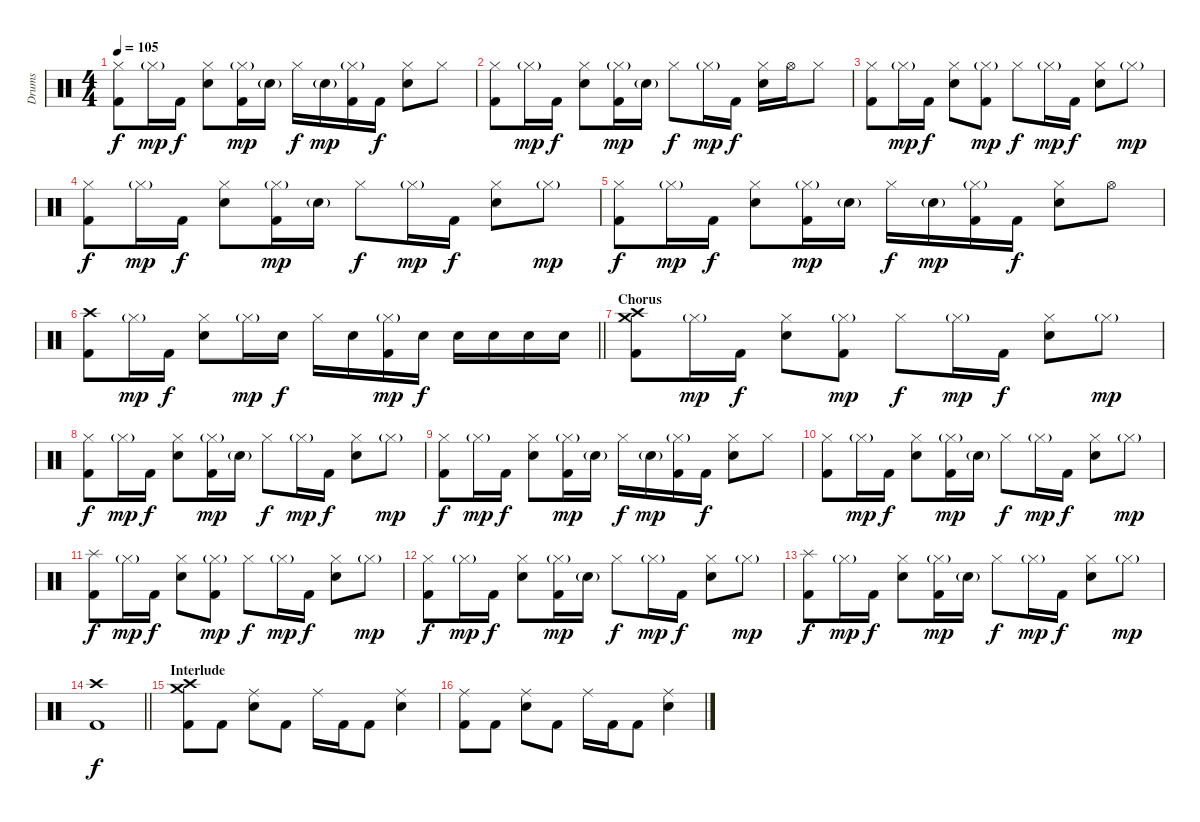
\track ("Drums" "Drums") {instrument percussion}
\staff {score}
\articulation defaults
\ts (4 4)
\tempo 105
\clef neutral
\ks c
("Hi-Hat (closed)" "Kick (hit) 2").8{dy f} "Hi-Hat (closed)"{g}.16{dy mp} "Kick (hit) 2".16{dy f} ("Hi-Hat (closed)" "Electric Snare (hit)").8 ("Hi-Hat (closed)"{g} "Kick (hit) 2").16{dy mp} "Electric Snare (hit)"{g}.16 "Hi-Hat (closed)".16{dy f} "Electric Snare (hit)"{g}.16{dy mp} ("Hi-Hat (closed)"{g} "Kick (hit) 2").16 "Kick (hit) 2".16{dy f} ("Hi-Hat (closed)" "Electric Snare (hit)").8 "Hi-Hat (closed)".8 |
("Hi-Hat (closed)" "Kick (hit) 2").8 "Hi-Hat (closed)"{g}.16{dy mp} "Kick (hit) 2".16{dy f} ("Hi-Hat (closed)" "Electric Snare (hit)").8 ("Hi-Hat (closed)"{g} "Kick (hit) 2").16{dy mp} "Electric Snare (hit)"{g}.16 "Hi-Hat (closed)".8{dy f} "Hi-Hat (closed)"{g}.16{dy mp} "Kick (hit) 2".16{dy f} ("Hi-Hat (closed)" "Electric Snare (hit)").16 "Hi-Hat (open)".16 "Hi-Hat (closed)".8 |
("Hi-Hat (closed)" "Kick (hit) 2").8 "Hi-Hat (closed)"{g}.16{dy mp} "Kick (hit) 2".16{dy f} ("Hi-Hat (closed)" "Electric Snare (hit)").8 ("Hi-Hat (closed)"{g} "Kick (hit) 2").8{dy mp} "Hi-Hat (closed)".8{dy f} "Hi-Hat (closed)"{g}.16{dy mp} "Kick (hit) 2".16{dy f} ("Hi-Hat (closed)" "Electric Snare (hit)").8 "Hi-Hat (closed)"{g}.8{dy mp} |
("Hi-Hat (closed)" "Kick (hit) 2").8{dy f} "Hi-Hat (closed)"{g}.16{dy mp} "Kick (hit) 2".16{dy f} ("Hi-Hat (closed)" "Electric Snare (hit)").8 ("Hi-Hat (closed)"{g} "Kick (hit) 2").16{dy mp} "Electric Snare (hit)"{g}.16 "Hi-Hat (closed)".8{dy f} "Hi-Hat (closed)"{g}.16{dy mp} "Kick (hit) 2".16{dy f} ("Hi-Hat (closed)" "Electric Snare (hit)").8 "Hi-Hat (closed)"{g}.8{dy mp} |
("Hi-Hat (closed)" "Kick (hit) 2").8{dy f} "Hi-Hat (closed)"{g}.16{dy mp} "Kick (hit) 2".16{dy f} ("Hi-Hat (closed)" "Electric Snare (hit)").8 ("Hi-Hat (closed)"{g} "Kick (hit) 2").16{dy mp} "Electric Snare (hit)"{g}.16 "Hi-Hat (closed)".16{dy f} "Electric Snare (hit)"{g}.16{dy mp} ("Hi-Hat (closed)"{g} "Kick (hit) 2").16 "Kick (hit) 2".16{dy f} ("Hi-Hat (closed)" "Electric Snare (hit)").8 "Hi-Hat (open)".8 |
\barLineRight lightlight
("Crash high (hit)" "Kick (hit) 2").8 "Hi-Hat (closed)"{g}.16{dy mp} "Kick (hit) 2".16{dy f} ("Hi-Hat (closed)" "Electric Snare (hit)").8 "Hi-Hat (closed)"{g}.16{dy mp} "Electric Snare (hit)".16{dy f} "Hi-Hat (closed)".16 "Electric Snare (hit)".16 ("Hi-Hat (closed)"{g} "Kick (hit) 2").16{dy mp} "Electric Snare (hit)".16{dy f} "Electric Snare (hit)".16 "Electric Snare (hit)".16 "Electric Snare (hit)".16 "Electric Snare (hit)".16 |
\section ("" "Chorus")
("Crash medium (hit)" "Crash high (hit)" "Kick (hit) 2").8 "Hi-Hat (closed)"{g}.16{dy mp} "Kick (hit) 2".16{dy f} ("Hi-Hat (closed)" "Electric Snare (hit)").8 ("Hi-Hat (closed)"{g} "Kick (hit) 2").8{dy mp} "Hi-Hat (closed)".8{dy f} "Hi-Hat (closed)"{g}.16{dy mp} "Kick (hit) 2".16{dy f} ("Hi-Hat (closed)" "Electric Snare (hit)").8 "Hi-Hat (closed)"{g}.8{dy mp} |
("Hi-Hat (closed)" "Kick (hit) 2").8{dy f} "Hi-Hat (closed)"{g}.16{dy mp} "Kick (hit) 2".16{dy f} ("Hi-Hat (closed)" "Electric Snare (hit)").8 ("Hi-Hat (closed)"{g} "Kick (hit) 2").16{dy mp} "Electric Snare (hit)"{g}.16 "Hi-Hat (closed)".8{dy f} "Hi-Hat (closed)"{g}.16{dy mp} "Kick (hit) 2".16{dy f} ("Hi-Hat (closed)" "Electric Snare (hit)").8 "Hi-Hat (closed)"{g}.8{dy mp} |
("Hi-Hat (closed)" "Kick (hit) 2").8{dy f} "Hi-Hat (closed)"{g}.16{dy mp} "Kick (hit) 2".16{dy f} ("Hi-Hat (closed)" "Electric Snare (hit)").8 ("Hi-Hat (closed)"{g} "Kick (hit) 2").16{dy mp} "Electric Snare (hit)"{g}.16 "Hi-Hat (closed)".16{dy f} "Electric Snare (hit)"{g}.16{dy mp} ("Hi-Hat (closed)"{g} "Kick (hit) 2").16 "Kick (hit) 2".16{dy f} ("Hi-Hat (closed)" "Electric Snare (hit)").8 "Hi-Hat (closed)".8 |
("Hi-Hat (closed)" "Kick (hit) 2").8 "Hi-Hat (closed)"{g}.16{dy mp} "Kick (hit) 2".16{dy f} ("Hi-Hat (closed)" "Electric Snare (hit)").8 ("Hi-Hat (closed)"{g} "Kick (hit) 2").16{dy mp} "Electric Snare (hit)"{g}.16 "Hi-Hat (closed)".8{dy f} "Hi-Hat (closed)"{g}.16{dy mp} "Kick (hit) 2".16{dy f} ("Hi-Hat (closed)" "Electric Snare (hit)").8 "Hi-Hat (closed)"{g}.8{dy mp} |
("Splash (hit)" "Kick (hit) 2").8{dy f} "Hi-Hat (closed)"{g}.16{dy mp} "Kick (hit) 2".16{dy f} ("Hi-Hat (closed)" "Electric Snare (hit)").8 ("Hi-Hat (closed)"{g} "Kick (hit) 2").8{dy mp} "Hi-Hat (closed)".8{dy f} "Hi-Hat (closed)"{g}.16{dy mp} "Kick (hit) 2".16{dy f} ("Hi-Hat (closed)" "Electric Snare (hit)").8 "Hi-Hat (closed)"{g}.8{dy mp} |
("Hi-Hat (closed)" "Kick (hit) 2").8{dy f} "Hi-Hat (closed)"{g}.16{dy mp} "Kick (hit) 2".16{dy f} ("Hi-Hat (closed)" "Electric Snare (hit)").8 ("Hi-Hat (closed)"{g} "Kick (hit) 2").16{dy mp} "Electric Snare (hit)"{g}.16 "Hi-Hat (closed)".8{dy f} "Hi-Hat (closed)"{g}.16{dy mp} "Kick (hit) 2".16{dy f} ("Hi-Hat (closed)" "Electric Snare (hit)").8 "Hi-Hat (closed)"{g}.8{dy mp} |
("Splash (hit)" "Kick (hit) 2").8{dy f} "Hi-Hat (closed)"{g}.16{dy mp} "Kick (hit) 2".16{dy f} ("Hi-Hat (closed)" "Electric Snare (hit)").8 ("Hi-Hat (closed)"{g} "Kick (hit) 2").16{dy mp} "Electric Snare (hit)"{g}.16 "Hi-Hat (closed)".8{dy f} "Hi-Hat (closed)"{g}.16{dy mp} "Kick (hit) 2".16{dy f} ("Hi-Hat (closed)" "Electric Snare (hit)").8 "Hi-Hat (closed)"{g}.8{dy mp} |
\barLineRight lightlight
("Crash high (hit)" "Kick (hit) 2").1{dy f} |
\section ("" "Interlude")
("Crash high (hit)" "Crash medium (hit)" "Kick (hit) 2").8 "Kick (hit) 2".8 ("Ride (middle)" "Electric Snare (hit)").8 "Kick (hit) 2".8 "Ride (middle)".16 "Kick (hit) 2".16 "Kick (hit) 2".8 ("Ride (middle)" "Electric Snare (hit)").4 |
("Ride (middle)" "Kick (hit) 2").8 "Kick (hit) 2".8 ("Ride (middle)" "Electric Snare (hit)").8 "Kick (hit) 2".8 "Ride (middle)".16 "Kick (hit) 2".16 "Kick (hit) 2".8 ("Ride (middle)" "Electric Snare (hit)").4
